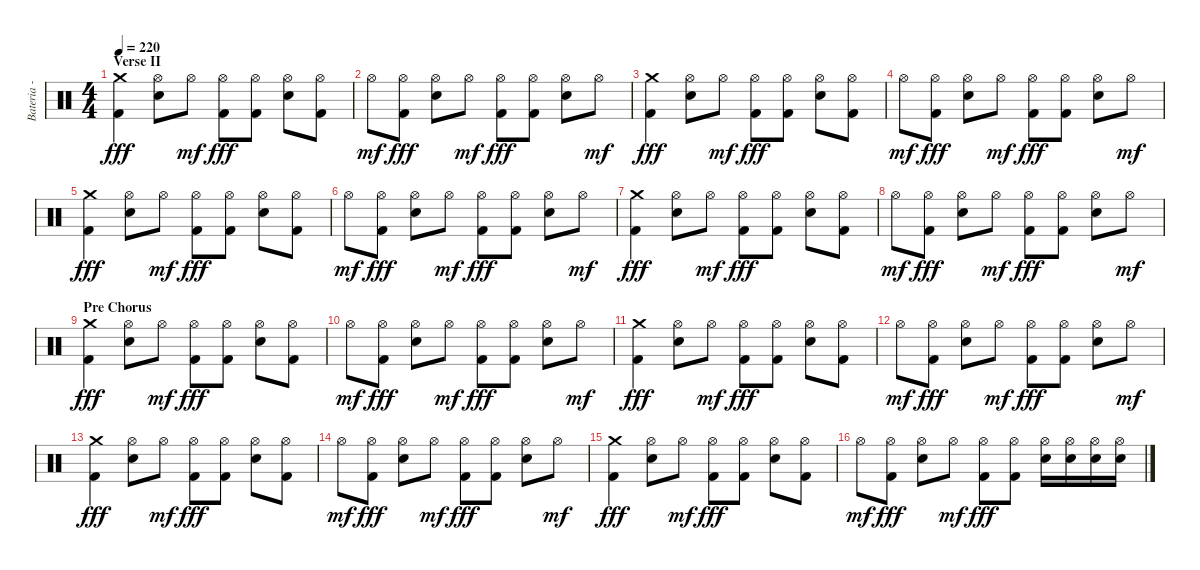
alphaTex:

\track ("Bateria - Larzon" "Bateria - ") {instrument percussion}
\staff {score}
\articulation defaults
\ts (4 4)
\section ("" "Verse II")
\tempo 220
\clef neutral
\ks c
("Crash medium (hit)" "Kick (hit) 2").4{dy fff} ("Hi-Hat (open)" "Electric Snare (hit)").8 "Hi-Hat (open)".8{dy mf} ("Hi-Hat (open)" "Kick (hit) 2").8{dy fff} ("Hi-Hat (open)" "Kick (hit) 2").8 ("Hi-Hat (open)" "Electric Snare (hit)").8 ("Hi-Hat (open)" "Kick (hit) 2").8 |
"Hi-Hat (open)".8{dy mf} ("Hi-Hat (open)" "Kick (hit) 2").8{dy fff} ("Hi-Hat (open)" "Electric Snare (hit)").8 "Hi-Hat (open)".8{dy mf} ("Hi-Hat (open)" "Kick (hit) 2").8{dy fff} ("Hi-Hat (open)" "Kick (hit) 2").8 ("Hi-Hat (open)" "Electric Snare (hit)").8 "Hi-Hat (open)".8{dy mf} |
("Crash medium (hit)" "Kick (hit) 2").4{dy fff} ("Hi-Hat (open)" "Electric Snare (hit)").8 "Hi-Hat (open)".8{dy mf} ("Hi-Hat (open)" "Kick (hit) 2").8{dy fff} ("Hi-Hat (open)" "Kick (hit) 2").8 ("Hi-Hat (open)" "Electric Snare (hit)").8 ("Hi-Hat (open)" "Kick (hit) 2").8 |
"Hi-Hat (open)".8{dy mf} ("Hi-Hat (open)" "Kick (hit) 2").8{dy fff} ("Hi-Hat (open)" "Electric Snare (hit)").8 "Hi-Hat (open)".8{dy mf} ("Hi-Hat (open)" "Kick (hit) 2").8{dy fff} ("Hi-Hat (open)" "Kick (hit) 2").8 ("Hi-Hat (open)" "Electric Snare (hit)").8 "Hi-Hat (open)".8{dy mf} |
("Crash medium (hit)" "Kick (hit) 2").4{dy fff} ("Hi-Hat (open)" "Electric Snare (hit)").8 "Hi-Hat (open)".8{dy mf} ("Hi-Hat (open)" "Kick (hit) 2").8{dy fff} ("Hi-Hat (open)" "Kick (hit) 2").8 ("Hi-Hat (open)" "Electric Snare (hit)").8 ("Hi-Hat (open)" "Kick (hit) 2").8 |
"Hi-Hat (open)".8{dy mf} ("Hi-Hat (open)" "Kick (hit) 2").8{dy fff} ("Hi-Hat (open)" "Electric Snare (hit)").8 "Hi-Hat (open)".8{dy mf} ("Hi-Hat (open)" "Kick (hit) 2").8{dy fff} ("Hi-Hat (open)" "Kick (hit) 2").8 ("Hi-Hat (open)" "Electric Snare (hit)").8 "Hi-Hat (open)".8{dy mf} |
("Crash medium (hit)" "Kick (hit) 2").4{dy fff} ("Hi-Hat (open)" "Electric Snare (hit)").8 "Hi-Hat (open)".8{dy mf} ("Hi-Hat (open)" "Kick (hit) 2").8{dy fff} ("Hi-Hat (open)" "Kick (hit) 2").8 ("Hi-Hat (open)" "Electric Snare (hit)").8 ("Hi-Hat (open)" "Kick (hit) 2").8 |
"Hi-Hat (open)".8{dy mf} ("Hi-Hat (open)" "Kick (hit) 2").8{dy fff} ("Hi-Hat (open)" "Electric Snare (hit)").8 "Hi-Hat (open)".8{dy mf} ("Hi-Hat (open)" "Kick (hit) 2").8{dy fff} ("Hi-Hat (open)" "Kick (hit) 2").8 ("Hi-Hat (open)" "Electric Snare (hit)").8 "Hi-Hat (open)".8{dy mf} |
\section ("" "Pre Chorus")
("Crash medium (hit)" "Kick (hit) 2").4{dy fff} ("Hi-Hat (open)" "Electric Snare (hit)").8 "Hi-Hat (open)".8{dy mf} ("Hi-Hat (open)" "Kick (hit) 2").8{dy fff} ("Hi-Hat (open)" "Kick (hit) 2").8 ("Hi-Hat (open)" "Electric Snare (hit)").8 ("Hi-Hat (open)" "Kick (hit) 2").8 |
"Hi-Hat (open)".8{dy mf} ("Hi-Hat (open)" "Kick (hit) 2").8{dy fff} ("Hi-Hat (open)" "Electric Snare (hit)").8 "Hi-Hat (open)".8{dy mf} ("Hi-Hat (open)" "Kick (hit) 2").8{dy fff} ("Hi-Hat (open)" "Kick (hit) 2").8 ("Hi-Hat (open)" "Electric Snare (hit)").8 "Hi-Hat (open)".8{dy mf} |
("Crash medium (hit)" "Kick (hit) 2").4{dy fff} ("Hi-Hat (open)" "Electric Snare (hit)").8 "Hi-Hat (open)".8{dy mf} ("Hi-Hat (open)" "Kick (hit) 2").8{dy fff} ("Hi-Hat (open)" "Kick (hit) 2").8 ("Hi-Hat (open)" "Electric Snare (hit)").8 ("Hi-Hat (open)" "Kick (hit) 2").8 |
"Hi-Hat (open)".8{dy mf} ("Hi-Hat (open)" "Kick (hit) 2").8{dy fff} ("Hi-Hat (open)" "Electric Snare (hit)").8 "Hi-Hat (open)".8{dy mf} ("Hi-Hat (open)" "Kick (hit) 2").8{dy fff} ("Hi-Hat (open)" "Kick (hit) 2").8 ("Hi-Hat (open)" "Electric Snare (hit)").8 "Hi-Hat (open)".8{dy mf} |
("Crash medium (hit)" "Kick (hit) 2").4{dy fff} ("Hi-Hat (open)" "Electric Snare (hit)").8 "Hi-Hat (open)".8{dy mf} ("Hi-Hat (open)" "Kick (hit) 2").8{dy fff} ("Hi-Hat (open)" "Kick (hit) 2").8 ("Hi-Hat (open)" "Electric Snare (hit)").8 ("Hi-Hat (open)" "Kick (hit) 2").8 |
"Hi-Hat (open)".8{dy mf} ("Hi-Hat (open)" "Kick (hit) 2").8{dy fff} ("Hi-Hat (open)" "Electric Snare (hit)").8 "Hi-Hat (open)".8{dy mf} ("Hi-Hat (open)" "Kick (hit) 2").8{dy fff} ("Hi-Hat (open)" "Kick (hit) 2").8 ("Hi-Hat (open)" "Electric Snare (hit)").8 "Hi-Hat (open)".8{dy mf} |
("Crash medium (hit)" "Kick (hit) 2").4{dy fff} ("Hi-Hat (open)" "Electric Snare (hit)").8 "Hi-Hat (open)".8{dy mf} ("Hi-Hat (open)" "Kick (hit) 2").8{dy fff} ("Hi-Hat (open)" "Kick (hit) 2").8 ("Hi-Hat (open)" "Electric Snare (hit)").8 ("Hi-Hat (open)" "Kick (hit) 2").8 |
"Hi-Hat (open)".8{dy mf} ("Hi-Hat (open)" "Kick (hit) 2").8{dy fff} ("Hi-Hat (open)" "Electric Snare (hit)").8 "Hi-Hat (open)".8{dy mf} ("Hi-Hat (open)" "Kick (hit) 2").8{dy fff} ("Hi-Hat (open)" "Kick (hit) 2").8 ("Hi-Hat (open)" "Electric Snare (hit)").16 ("Hi-Hat (open)" "Electric Snare (hit)").16 ("Hi-Hat (open)" "Electric Snare (hit)").16 ("Hi-Hat (open)" "Electric Snare (hit)").16
